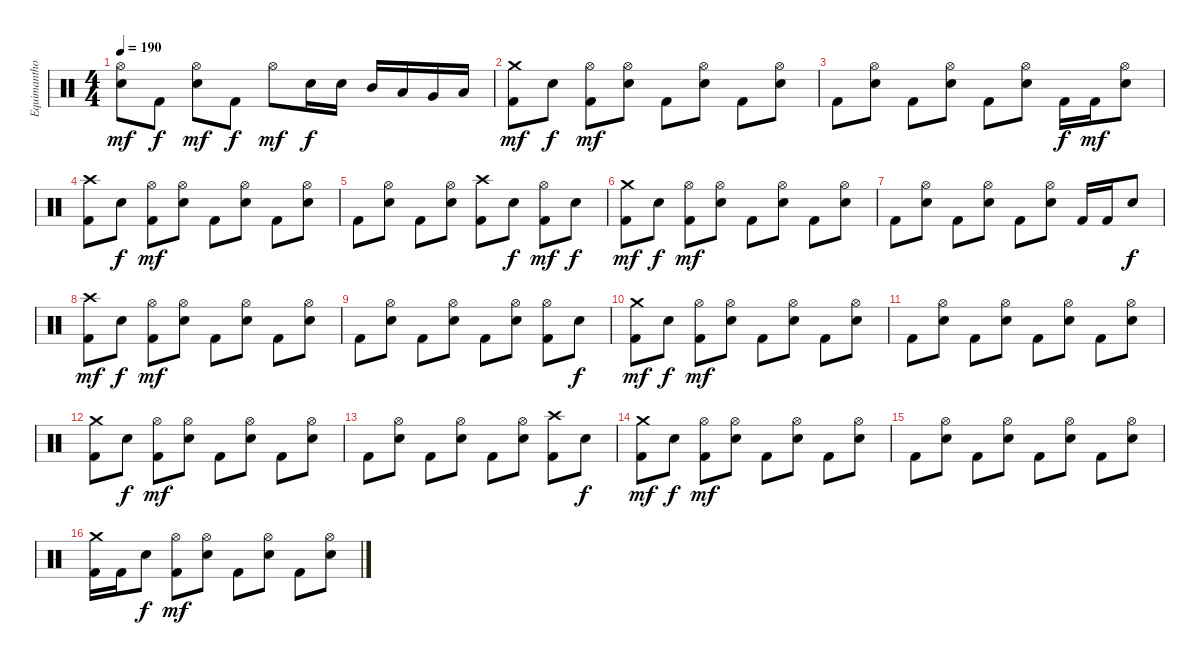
\track ("Equimanthorn" "Equimantho") {instrument percussion}
\staff {score}
\articulation defaults
\ts (4 4)
\tempo 190
\clef neutral
\ks c
("Hi-Hat (open)" "Electric Snare (hit)").8{dy mf} "Kick (hit) 2".8{dy f} ("Hi-Hat (open)" "Electric Snare (hit)").8{dy mf} "Kick (hit) 2".8{dy f} "Hi-Hat (open)".8{dy mf} "Electric Snare (hit)".16{dy f} "Electric Snare (hit)".16 "Mid Tom (hit)".16 "Low Tom (hit)".16 "Very Low Tom (hit)".16 "Low Floor Tom (hit)".16 |
("Crash medium (hit)" "Kick (hit) 2").8{dy mf} "Electric Snare (hit)".8{dy f} ("Hi-Hat (open)" "Kick (hit) 2").8{dy mf} ("Hi-Hat (open)" "Electric Snare (hit)").8 "Kick (hit) 2".8 ("Hi-Hat (open)" "Electric Snare (hit)").8 "Kick (hit) 2".8 ("Hi-Hat (open)" "Electric Snare (hit)").8 |
"Kick (hit) 2".8 ("Hi-Hat (open)" "Electric Snare (hit)").8 "Kick (hit) 2".8 ("Hi-Hat (open)" "Electric Snare (hit)").8 "Kick (hit) 2".8 ("Hi-Hat (open)" "Electric Snare (hit)").8 "Kick (hit) 2".16{dy f} "Kick (hit) 2".16{dy mf} ("Hi-Hat (open)" "Electric Snare (hit)").8 |
("Crash high (hit)" "Kick (hit) 2").8 "Electric Snare (hit)".8{dy f} ("Hi-Hat (open)" "Kick (hit) 2").8{dy mf} ("Hi-Hat (open)" "Electric Snare (hit)").8 "Kick (hit) 2".8 ("Hi-Hat (open)" "Electric Snare (hit)").8 "Kick (hit) 2".8 ("Hi-Hat (open)" "Electric Snare (hit)").8 |
"Kick (hit) 2".8 ("Hi-Hat (open)" "Electric Snare (hit)").8 "Kick (hit) 2".8 ("Hi-Hat (open)" "Electric Snare (hit)").8 ("Crash high (hit)" "Kick (hit) 2").8 "Electric Snare (hit)".8{dy f} ("Hi-Hat (open)" "Kick (hit) 2").8{dy mf} "Electric Snare (hit)".8{dy f} |
("Crash medium (hit)" "Kick (hit) 2").8{dy mf} "Electric Snare (hit)".8{dy f} ("Hi-Hat (open)" "Kick (hit) 2").8{dy mf} ("Hi-Hat (open)" "Electric Snare (hit)").8 "Kick (hit) 2".8 ("Hi-Hat (open)" "Electric Snare (hit)").8 "Kick (hit) 2".8 ("Hi-Hat (open)" "Electric Snare (hit)").8 |
"Kick (hit) 2".8 ("Hi-Hat (open)" "Electric Snare (hit)").8 "Kick (hit) 2".8 ("Hi-Hat (open)" "Electric Snare (hit)").8 "Kick (hit) 2".8 ("Hi-Hat (open)" "Electric Snare (hit)").8 "Kick (hit) 2".16 "Kick (hit) 2".16 "Electric Snare (hit)".8{dy f} |
("Crash high (hit)" "Kick (hit) 2").8{dy mf} "Electric Snare (hit)".8{dy f} ("Hi-Hat (open)" "Kick (hit) 2").8{dy mf} ("Hi-Hat (open)" "Electric Snare (hit)").8 "Kick (hit) 2".8 ("Hi-Hat (open)" "Electric Snare (hit)").8 "Kick (hit) 2".8 ("Hi-Hat (open)" "Electric Snare (hit)").8 |
"Kick (hit) 2".8 ("Hi-Hat (open)" "Electric Snare (hit)").8 "Kick (hit) 2".8 ("Hi-Hat (open)" "Electric Snare (hit)").8 "Kick (hit) 2".8 ("Hi-Hat (open)" "Electric Snare (hit)").8 ("Hi-Hat (open)" "Kick (hit) 2").8 "Electric Snare (hit)".8{dy f} |
("Crash medium (hit)" "Kick (hit) 2").8{dy mf} "Electric Snare (hit)".8{dy f} ("Hi-Hat (open)" "Kick (hit) 2").8{dy mf} ("Hi-Hat (open)" "Electric Snare (hit)").8 "Kick (hit) 2".8 ("Hi-Hat (open)" "Electric Snare (hit)").8 "Kick (hit) 2".8 ("Hi-Hat (open)" "Electric Snare (hit)").8 |
"Kick (hit) 2".8 ("Hi-Hat (open)" "Electric Snare (hit)").8 "Kick (hit) 2".8 ("Hi-Hat (open)" "Electric Snare (hit)").8 "Kick (hit) 2".8 ("Hi-Hat (open)" "Electric Snare (hit)").8 "Kick (hit) 2".8 ("Hi-Hat (open)" "Electric Snare (hit)").8 |
("Crash medium (hit)" "Kick (hit) 2").8 "Electric Snare (hit)".8{dy f} ("Hi-Hat (open)" "Kick (hit) 2").8{dy mf} ("Hi-Hat (open)" "Electric Snare (hit)").8 "Kick (hit) 2".8 ("Hi-Hat (open)" "Electric Snare (hit)").8 "Kick (hit) 2".8 ("Hi-Hat (open)" "Electric Snare (hit)").8 |
"Kick (hit) 2".8 ("Hi-Hat (open)" "Electric Snare (hit)").8 "Kick (hit) 2".8 ("Hi-Hat (open)" "Electric Snare (hit)").8 "Kick (hit) 2".8 ("Hi-Hat (open)" "Electric Snare (hit)").8 ("Crash high (hit)" "Kick (hit) 2").8 "Electric Snare (hit)".8{dy f} |
("Crash medium (hit)" "Kick (hit) 2").8{dy mf} "Electric Snare (hit)".8{dy f} ("Hi-Hat (open)" "Kick (hit) 2").8{dy mf} ("Hi-Hat (open)" "Electric Snare (hit)").8 "Kick (hit) 2".8 ("Hi-Hat (open)" "Electric Snare (hit)").8 "Kick (hit) 2".8 ("Hi-Hat (open)" "Electric Snare (hit)").8 |
"Kick (hit) 2".8 ("Hi-Hat (open)" "Electric Snare (hit)").8 "Kick (hit) 2".8 ("Hi-Hat (open)" "Electric Snare (hit)").8 "Kick (hit) 2".8 ("Hi-Hat (open)" "Electric Snare (hit)").8 "Kick (hit) 2".8 ("Hi-Hat (open)" "Electric Snare (hit)").8 |
("Crash medium (hit)" "Kick (hit) 2").16 "Kick (hit) 2".16 "Electric Snare (hit)".8{dy f} ("Hi-Hat (open)" "Kick (hit) 2").8{dy mf} ("Hi-Hat (open)" "Electric Snare (hit)").8 "Kick (hit) 2".8 ("Hi-Hat (open)" "Electric Snare (hit)").8 "Kick (hit) 2".8 ("Hi-Hat (open)" "Electric Snare (hit)").8
